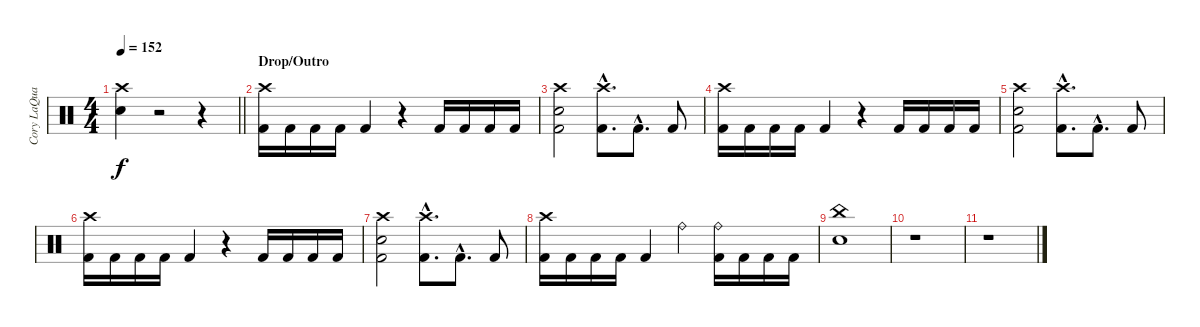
\track ("Cory LaQuay" "Cory LaQua") {instrument percussion}
\staff {score}
\articulation defaults
\ts (4 4)
\tempo 152
\clef neutral
\barLineRight lightlight
\ks c
("Crash high (hit)" "Snare (hit) 2").4{dy f} r.2 r.4 |
\section ("" "Drop/Outro")
("Crash high (hit)" "Kick (hit) 2").16{volume 14} "Kick (hit) 2".16 "Kick (hit) 2".16 "Kick (hit) 2".16 "Kick (hit) 2".4 r.4 "Kick (hit) 2".16 "Kick (hit) 2".16 "Kick (hit) 2".16 "Kick (hit) 2".16 |
("Crash high (hit)" "Snare (hit) 2" "Kick (hit) 2").2 ("Crash high (hit)"{hac} "Kick (hit) 2"{hac}).8{d} "Kick (hit) 2"{hac}.8{d} "Kick (hit) 2".8 |
("Crash high (hit)" "Kick (hit) 2").16 "Kick (hit) 2".16 "Kick (hit) 2".16 "Kick (hit) 2".16 "Kick (hit) 2".4 r.4 "Kick (hit) 2".16 "Kick (hit) 2".16 "Kick (hit) 2".16 "Kick (hit) 2".16 |
("Crash high (hit)" "Snare (hit) 2" "Kick (hit) 2").2 ("Crash high (hit)"{hac} "Kick (hit) 2"{hac}).8{d} "Kick (hit) 2"{hac}.8{d} "Kick (hit) 2".8 |
("Crash high (hit)" "Kick (hit) 2").16 "Kick (hit) 2".16 "Kick (hit) 2".16 "Kick (hit) 2".16 "Kick (hit) 2".4 r.4 "Kick (hit) 2".16 "Kick (hit) 2".16 "Kick (hit) 2".16 "Kick (hit) 2".16 |
("Crash high (hit)" "Snare (hit) 2" "Kick (hit) 2").2 ("Crash high (hit)"{hac} "Kick (hit) 2"{hac}).8{d} "Kick (hit) 2"{hac}.8{d} "Kick (hit) 2".8 |
("Crash high (hit)" "Kick (hit) 2").16 "Kick (hit) 2".16 "Kick (hit) 2".16 "Kick (hit) 2".16 "Kick (hit) 2".4 "Ride (bell)".4 ("Ride (bell)" "Kick (hit) 2").16 "Kick (hit) 2".16 "Kick (hit) 2".16 "Kick (hit) 2".16 |
("China (hit)" "Snare (hit) 2").1 |
r.1 |
r.1
